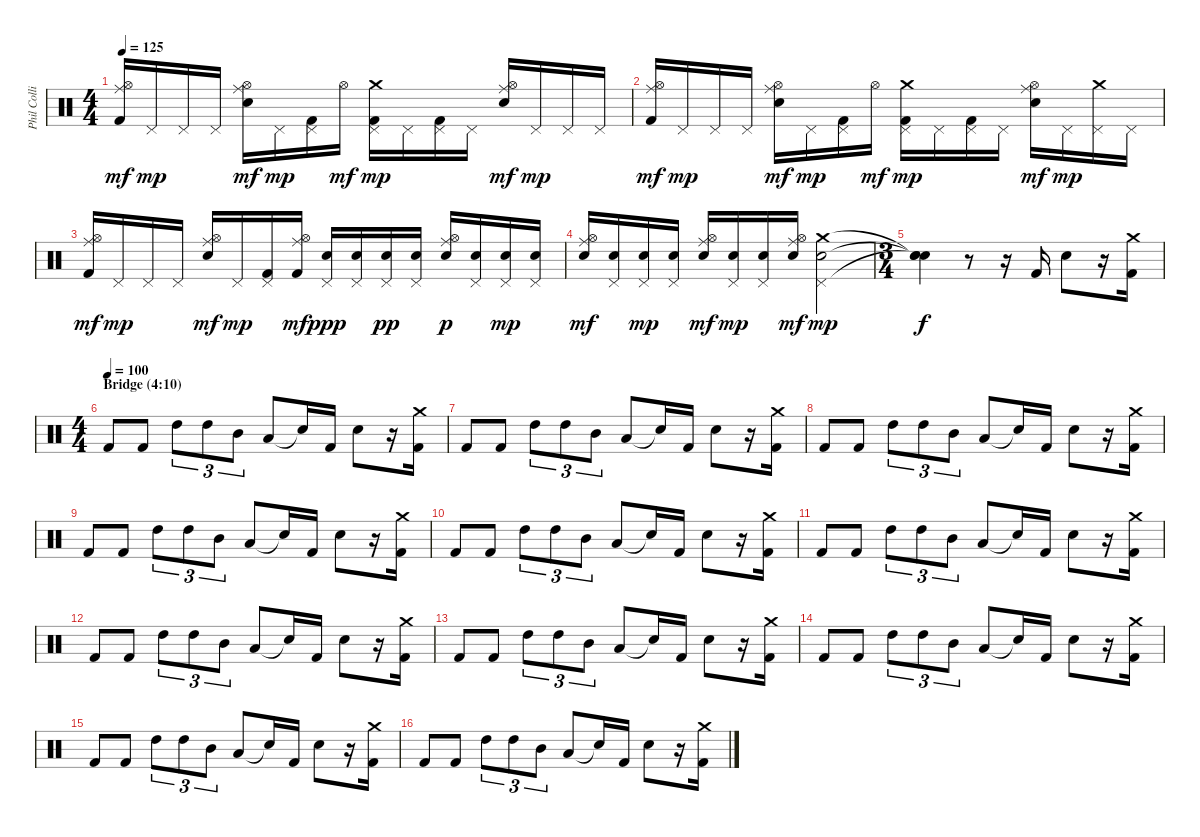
\track ("Phil Collins (drums)" "Phil Colli") {instrument percussion}
\staff {score}
\articulation defaults
\ts (4 4)
\tempo 125
\clef neutral
\ks c
("Ride (middle)" "Hi-Hat (open)" "Kick (hit) 2").16{dy mf} "Pedal Hi-Hat (hit)".16{dy mp} "Pedal Hi-Hat (hit)".16 "Pedal Hi-Hat (hit)".16 ("Ride (middle)" "Hi-Hat (open)" "Electric Snare (hit)").16{dy mf} "Pedal Hi-Hat (hit)".16{dy mp} ("Pedal Hi-Hat (hit)" "Kick (hit) 2").16 "Hi-Hat (open)".16{dy mf} ("Crash medium (hit)" "Pedal Hi-Hat (hit)" "Kick (hit) 2").16{dy mp} "Pedal Hi-Hat (hit)".16 ("Pedal Hi-Hat (hit)" "Kick (hit) 2").16 "Pedal Hi-Hat (hit)".16 ("Ride (middle)" "Hi-Hat (open)" "Electric Snare (hit)").16{dy mf} "Pedal Hi-Hat (hit)".16{dy mp} "Pedal Hi-Hat (hit)".16 "Pedal Hi-Hat (hit)".16 |
("Ride (middle)" "Hi-Hat (open)" "Kick (hit) 2").16{dy mf} "Pedal Hi-Hat (hit)".16{dy mp} "Pedal Hi-Hat (hit)".16 "Pedal Hi-Hat (hit)".16 ("Ride (middle)" "Hi-Hat (open)" "Electric Snare (hit)").16{dy mf} "Pedal Hi-Hat (hit)".16{dy mp} ("Pedal Hi-Hat (hit)" "Kick (hit) 2").16 "Hi-Hat (open)".16{dy mf} ("Crash medium (hit)" "Pedal Hi-Hat (hit)" "Kick (hit) 2").16{dy mp} "Pedal Hi-Hat (hit)".16 ("Pedal Hi-Hat (hit)" "Kick (hit) 2").16 "Pedal Hi-Hat (hit)".16 ("Ride (middle)" "Hi-Hat (open)" "Electric Snare (hit)").16{dy mf} "Pedal Hi-Hat (hit)".16{dy mp} ("Crash medium (hit)" "Pedal Hi-Hat (hit)").16 "Pedal Hi-Hat (hit)".16 |
("Ride (middle)" "Hi-Hat (open)" "Kick (hit) 2").16{dy mf} "Pedal Hi-Hat (hit)".16{dy mp} "Pedal Hi-Hat (hit)".16 "Pedal Hi-Hat (hit)".16 ("Ride (middle)" "Hi-Hat (open)" "Electric Snare (hit)").16{dy mf} "Pedal Hi-Hat (hit)".16{dy mp} ("Pedal Hi-Hat (hit)" "Kick (hit) 2").16 ("Ride (middle)" "Hi-Hat (open)" "Kick (hit) 2").16{dy mf} ("Pedal Hi-Hat (hit)" "Electric Snare (hit)").16{dy ppp} ("Pedal Hi-Hat (hit)" "Electric Snare (hit)").16 ("Pedal Hi-Hat (hit)" "Electric Snare (hit)").16{dy pp} ("Pedal Hi-Hat (hit)" "Electric Snare (hit)").16 ("Ride (middle)" "Hi-Hat (open)" "Electric Snare (hit)").16{dy p} ("Pedal Hi-Hat (hit)" "Electric Snare (hit)").16 ("Pedal Hi-Hat (hit)" "Electric Snare (hit)").16{dy mp} ("Pedal Hi-Hat (hit)" "Electric Snare (hit)").16 |
("Ride (middle)" "Hi-Hat (open)" "Electric Snare (hit)").16{dy mf} ("Pedal Hi-Hat (hit)" "Electric Snare (hit)").16 ("Pedal Hi-Hat (hit)" "Electric Snare (hit)").16{dy mp} ("Pedal Hi-Hat (hit)" "Electric Snare (hit)").16 ("Ride (middle)" "Hi-Hat (open)" "Electric Snare (hit)").16{dy mf} ("Pedal Hi-Hat (hit)" "Electric Snare (hit)").16{dy mp} ("Pedal Hi-Hat (hit)" "Electric Snare (hit)").16 ("Ride (middle)" "Hi-Hat (open)" "Electric Snare (hit)").16{dy mf} ("Crash medium (hit)" "Pedal Hi-Hat (hit)" "Electric Snare (hit)").2{dy mp} |
\ts (3 4)
("Snare (hit)"{t} "Snare (hit)"{t} "Snare (hit)"{t}).4{dy f} r.8 r.16 "Kick (hit) 2".16 "Electric Snare (hit)".8 r.16 ("Crash medium (hit)" "Kick (hit) 2").16 |
\ts (4 4)
\section ("" "Bridge (4:10)")
\tempo (100)
"Kick (hit) 2".8 "Kick (hit) 2".8 "High Tom (hit)".8{tu (3 2)} "High Tom (hit)".8{tu (3 2)} "Mid Tom (hit)".8{tu (3 2)} "Low Tom (hit)".8 "Snare (hit)"{t}.16 "Kick (hit) 2".16 "Electric Snare (hit)".8 r.16 ("Crash medium (hit)" "Kick (hit) 2").16 |
"Kick (hit) 2".8 "Kick (hit) 2".8 "High Tom (hit)".8{tu (3 2)} "High Tom (hit)".8{tu (3 2)} "Mid Tom (hit)".8{tu (3 2)} "Low Tom (hit)".8 "Snare (hit)"{t}.16 "Kick (hit) 2".16 "Electric Snare (hit)".8 r.16 ("Crash medium (hit)" "Kick (hit) 2").16 |
"Kick (hit) 2".8 "Kick (hit) 2".8 "High Tom (hit)".8{tu (3 2)} "High Tom (hit)".8{tu (3 2)} "Mid Tom (hit)".8{tu (3 2)} "Low Tom (hit)".8 "Snare (hit)"{t}.16 "Kick (hit) 2".16 "Electric Snare (hit)".8 r.16 ("Crash medium (hit)" "Kick (hit) 2").16 |
"Kick (hit) 2".8 "Kick (hit) 2".8 "High Tom (hit)".8{tu (3 2)} "High Tom (hit)".8{tu (3 2)} "Mid Tom (hit)".8{tu (3 2)} "Low Tom (hit)".8 "Snare (hit)"{t}.16 "Kick (hit) 2".16 "Electric Snare (hit)".8 r.16 ("Crash medium (hit)" "Kick (hit) 2").16 |
"Kick (hit) 2".8 "Kick (hit) 2".8 "High Tom (hit)".8{tu (3 2)} "High Tom (hit)".8{tu (3 2)} "Mid Tom (hit)".8{tu (3 2)} "Low Tom (hit)".8 "Snare (hit)"{t}.16 "Kick (hit) 2".16 "Electric Snare (hit)".8 r.16 ("Crash medium (hit)" "Kick (hit) 2").16 |
"Kick (hit) 2".8 "Kick (hit) 2".8 "High Tom (hit)".8{tu (3 2)} "High Tom (hit)".8{tu (3 2)} "Mid Tom (hit)".8{tu (3 2)} "Low Tom (hit)".8 "Snare (hit)"{t}.16 "Kick (hit) 2".16 "Electric Snare (hit)".8 r.16 ("Crash medium (hit)" "Kick (hit) 2").16 |
"Kick (hit) 2".8 "Kick (hit) 2".8 "High Tom (hit)".8{tu (3 2)} "High Tom (hit)".8{tu (3 2)} "Mid Tom (hit)".8{tu (3 2)} "Low Tom (hit)".8 "Snare (hit)"{t}.16 "Kick (hit) 2".16 "Electric Snare (hit)".8 r.16 ("Crash medium (hit)" "Kick (hit) 2").16 |
"Kick (hit) 2".8 "Kick (hit) 2".8 "High Tom (hit)".8{tu (3 2)} "High Tom (hit)".8{tu (3 2)} "Mid Tom (hit)".8{tu (3 2)} "Low Tom (hit)".8 "Snare (hit)"{t}.16 "Kick (hit) 2".16 "Electric Snare (hit)".8 r.16 ("Crash medium (hit)" "Kick (hit) 2").16 |
"Kick (hit) 2".8 "Kick (hit) 2".8 "High Tom (hit)".8{tu (3 2)} "High Tom (hit)".8{tu (3 2)} "Mid Tom (hit)".8{tu (3 2)} "Low Tom (hit)".8 "Snare (hit)"{t}.16 "Kick (hit) 2".16 "Electric Snare (hit)".8 r.16 ("Crash medium (hit)" "Kick (hit) 2").16 |
"Kick (hit) 2".8 "Kick (hit) 2".8 "High Tom (hit)".8{tu (3 2)} "High Tom (hit)".8{tu (3 2)} "Mid Tom (hit)".8{tu (3 2)} "Low Tom (hit)".8 "Snare (hit)"{t}.16 "Kick (hit) 2".16 "Electric Snare (hit)".8 r.16 ("Crash medium (hit)" "Kick (hit) 2").16 |
"Kick (hit) 2".8 "Kick (hit) 2".8 "High Tom (hit)".8{tu (3 2)} "High Tom (hit)".8{tu (3 2)} "Mid Tom (hit)".8{tu (3 2)} "Low Tom (hit)".8 "Snare (hit)"{t}.16 "Kick (hit) 2".16 "Electric Snare (hit)".8 r.16 ("Crash medium (hit)" "Kick (hit) 2").16
